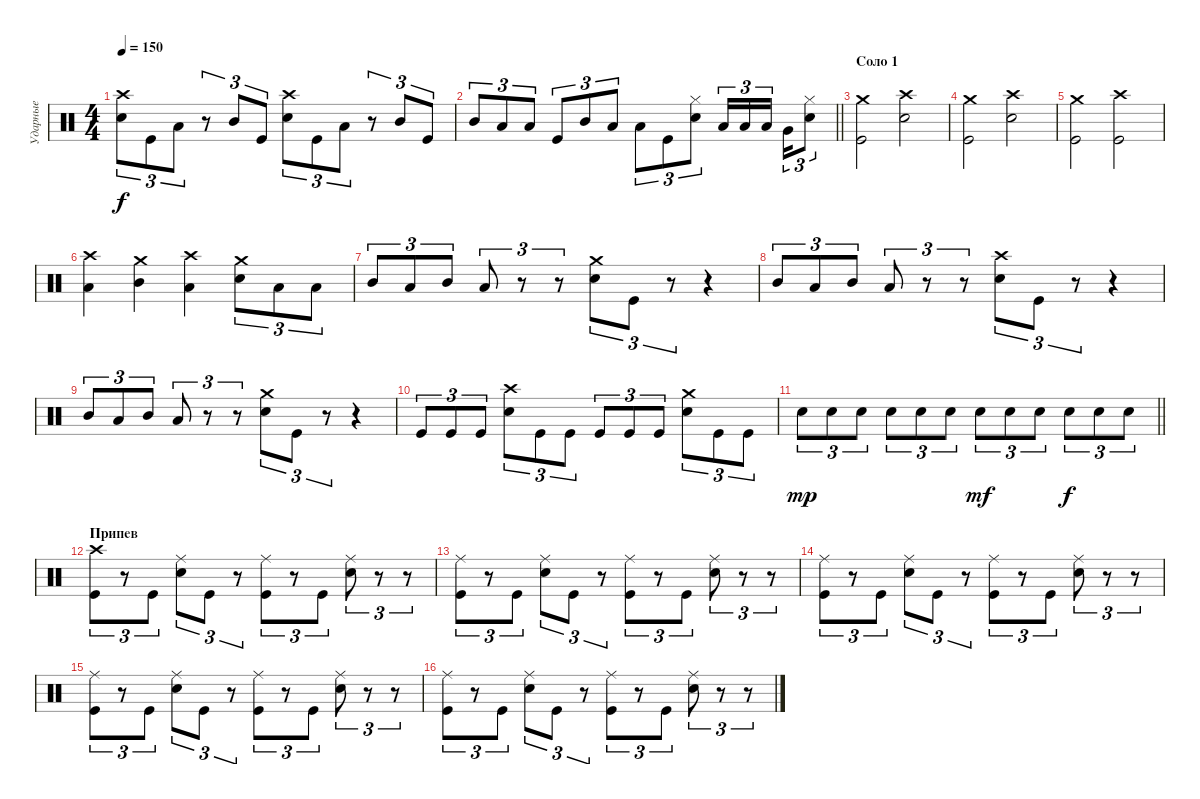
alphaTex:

\track ("Ударные" "Ударные") {instrument percussion}
\staff {score}
\articulation defaults
\ts (4 4)
\tempo 150
\clef neutral
\ks c
("Crash high (hit)" "Snare (hit) 2").8{tu (3 2) dy f} "Kick (hit)".8{tu (3 2)} "Low Tom (hit)".8{tu (3 2)} r.8{tu (3 2)} "Mid Tom (hit)".8{tu (3 2)} "Kick (hit)".8{tu (3 2)} ("Crash high (hit)" "Snare (hit) 2").8{tu (3 2)} "Kick (hit)".8{tu (3 2)} "Low Tom (hit)".8{tu (3 2)} r.8{tu (3 2)} "Mid Tom (hit)".8{tu (3 2)} "Kick (hit)".8{tu (3 2)} |
\barLineRight lightlight "Mid Tom (hit)".8{tu (3 2)} "Low Tom (hit)".8{tu (3 2)} "Low Tom (hit)".8{tu (3 2)} "Kick (hit)".8{tu (3 2)} "Mid Tom (hit)".8{tu (3 2)} "Low Tom (hit)".8{tu (3 2)} "Low Tom (hit)".8{tu (3 2)} "Kick (hit)".8{tu (3 2)}
("Hi-Hat (closed)" "Snare (hit) 2").8{tu (3 2)} "Low Tom (hit)".16{tu (3 2)} "Low Tom (hit)".16{tu (3 2)} "Low Tom (hit)".16{tu (3 2) beam splitsecondary} "Very Low Tom (hit)".16{tu (3 2)} ("Hi-Hat (closed)" "Snare (hit) 2").8{tu (3 2)} |
\section ("" "Соло 1")
("Crash medium (hit)" "Kick (hit)").2 ("Crash high (hit)" "Snare (hit) 2").2 |
("Crash medium (hit)" "Kick (hit)").2 ("Crash high (hit)" "Snare (hit) 2").2 |
("Crash medium (hit)" "Kick (hit)").2 ("Crash high (hit)" "Kick (hit)").2 |
("Crash high (hit)" "Low Tom (hit)").4 ("Crash medium (hit)" "Mid Tom (hit)").4 ("Crash high (hit)" "Low Tom (hit)").4 ("Crash medium (hit)" "Snare (hit) 2").8{tu (3 2)} "Low Tom (hit)".8{tu (3 2)} "Low Tom (hit)".8{tu (3 2)} |
"Mid Tom (hit)".8{tu (3 2)} "Low Tom (hit)".8{tu (3 2)} "Mid Tom (hit)".8{tu (3 2)} "Low Tom (hit)".8{tu (3 2)} r.8{tu (3 2)} r.8{tu (3 2)} ("Crash medium (hit)" "Snare (hit) 2").8{tu (3 2)} "Kick (hit)".8{tu (3 2)} r.8{tu (3 2)} r.4 |
"Mid Tom (hit)".8{tu (3 2)} "Low Tom (hit)".8{tu (3 2)} "Mid Tom (hit)".8{tu (3 2)} "Low Tom (hit)".8{tu (3 2)} r.8{tu (3 2)} r.8{tu (3 2)} ("Crash high (hit)" "Snare (hit) 2").8{tu (3 2)} "Kick (hit)".8{tu (3 2)} r.8{tu (3 2)} r.4 |
"Mid Tom (hit)".8{tu (3 2)} "Low Tom (hit)".8{tu (3 2)} "Mid Tom (hit)".8{tu (3 2)} "Low Tom (hit)".8{tu (3 2)} r.8{tu (3 2)} r.8{tu (3 2)} ("Crash medium (hit)" "Snare (hit) 2").8{tu (3 2)} "Kick (hit)".8{tu (3 2)} r.8{tu (3 2)} r.4 |
"Kick (hit)".8{tu (3 2)} "Kick (hit)".8{tu (3 2)} "Kick (hit)".8{tu (3 2)} ("Crash high (hit)" "Snare (hit) 2").8{tu (3 2)} "Kick (hit)".8{tu (3 2)} "Kick (hit)".8{tu (3 2)} "Kick (hit)".8{tu (3 2)} "Kick (hit)".8{tu (3 2)} "Kick (hit)".8{tu (3 2)} ("Crash medium (hit)" "Snare (hit) 2").8{tu (3 2)} "Kick (hit)".8{tu (3 2)} "Kick (hit)".8{tu (3 2)} |
\barLineRight lightlight "Snare (hit) 2".8{tu (3 2) dy mp} "Snare (hit) 2".8{tu (3 2)} "Snare (hit) 2".8{tu (3 2)} "Snare (hit) 2".8{tu (3 2)} "Snare (hit) 2".8{tu (3 2)} "Snare (hit) 2".8{tu (3 2)} "Snare (hit) 2".8{tu (3 2) dy mf} "Snare (hit) 2".8{tu (3 2)} "Snare (hit) 2".8{tu (3 2)} "Snare (hit) 2".8{tu (3 2) dy f} "Snare (hit) 2".8{tu (3 2)} "Snare (hit) 2".8{tu (3 2)}
|
\section ("" "Припев")
("Crash high (hit)" "Kick (hit)").8{tu (3 2)} r.8{tu (3 2)} "Kick (hit)".8{tu (3 2)} ("Ride (middle)" "Snare (hit) 2").8{tu (3 2)} "Kick (hit)".8{tu (3 2)} r.8{tu (3 2)} ("Ride (middle)" "Kick (hit)").8{tu (3 2)} r.8{tu (3 2)} "Kick (hit)".8{tu (3 2)} ("Ride (middle)" "Snare (hit) 2").8{tu (3 2)} r.8{tu (3 2)} r.8{tu (3 2)} |
("Ride (middle)" "Kick (hit)").8{tu (3 2)} r.8{tu (3 2)} "Kick (hit)".8{tu (3 2)} ("Ride (middle)" "Snare (hit) 2").8{tu (3 2)} "Kick (hit)".8{tu (3 2)} r.8{tu (3 2)} ("Ride (middle)" "Kick (hit)").8{tu (3 2)} r.8{tu (3 2)} "Kick (hit)".8{tu (3 2)} ("Ride (middle)" "Snare (hit) 2").8{tu (3 2)} r.8{tu (3 2)} r.8{tu (3 2)} |
("Ride (middle)" "Kick (hit)").8{tu (3 2)} r.8{tu (3 2)} "Kick (hit)".8{tu (3 2)} ("Ride (middle)" "Snare (hit) 2").8{tu (3 2)} "Kick (hit)".8{tu (3 2)} r.8{tu (3 2)} ("Ride (middle)" "Kick (hit)").8{tu (3 2)} r.8{tu (3 2)} "Kick (hit)".8{tu (3 2)} ("Ride (middle)" "Snare (hit) 2").8{tu (3 2)} r.8{tu (3 2)} r.8{tu (3 2)} |
("Ride (middle)" "Kick (hit)").8{tu (3 2)} r.8{tu (3 2)} "Kick (hit)".8{tu (3 2)} ("Ride (middle)" "Snare (hit) 2").8{tu (3 2)} "Kick (hit)".8{tu (3 2)} r.8{tu (3 2)} ("Ride (middle)" "Kick (hit)").8{tu (3 2)} r.8{tu (3 2)} "Kick (hit)".8{tu (3 2)} ("Ride (middle)" "Snare (hit) 2").8{tu (3 2)} r.8{tu (3 2)} r.8{tu (3 2)} |
("Ride (middle)" "Kick (hit)").8{tu (3 2)} r.8{tu (3 2)} "Kick (hit)".8{tu (3 2)} ("Ride (middle)" "Snare (hit) 2").8{tu (3 2)} "Kick (hit)".8{tu (3 2)} r.8{tu (3 2)} ("Ride (middle)" "Kick (hit)").8{tu (3 2)} r.8{tu (3 2)} "Kick (hit)".8{tu (3 2)} ("Ride (middle)" "Snare (hit) 2").8{tu (3 2)} r.8{tu (3 2)} r.8{tu (3 2)}
